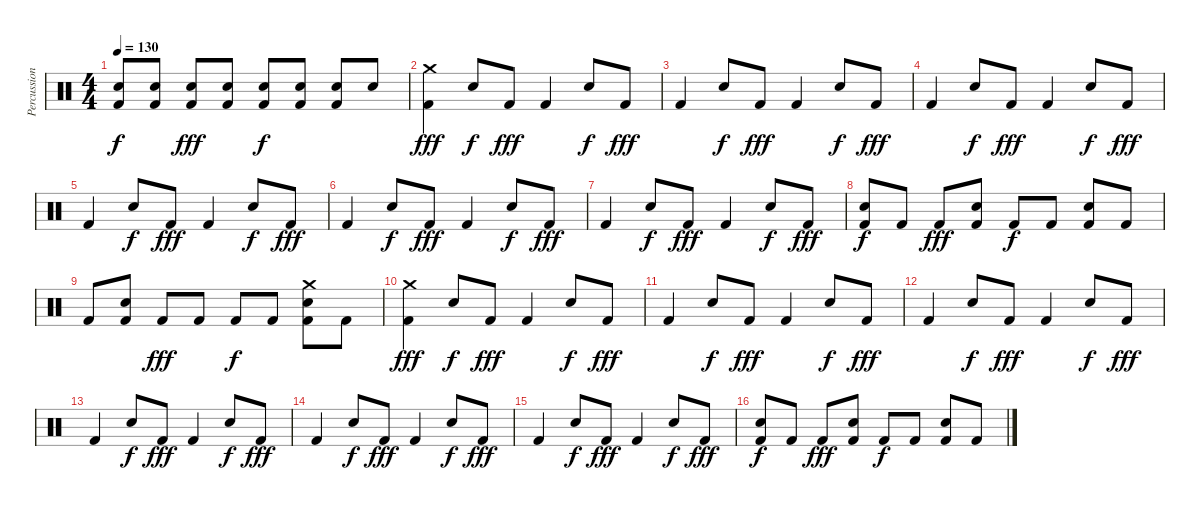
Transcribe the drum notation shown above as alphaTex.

\track ("Percussion" "Percussion") {instrument percussion}
\staff {score}
\articulation defaults
\ts (4 4)
\tempo 130
\clef neutral
\ks c
("Electric Snare (hit)" "Kick (hit) 2").8{dy f} ("Electric Snare (hit)" "Kick (hit) 2").8 ("Electric Snare (hit)" "Kick (hit) 2").8{dy fff} ("Electric Snare (hit)" "Kick (hit) 2").8 ("Electric Snare (hit)" "Kick (hit) 2").8{dy f} ("Electric Snare (hit)" "Kick (hit) 2").8 ("Electric Snare (hit)" "Kick (hit) 2").8 "Electric Snare (hit)".8 |
("Crash medium (hit)" "Kick (hit) 2").4{dy fff} "Electric Snare (hit)".8{dy f} "Kick (hit) 2".8{dy fff} "Kick (hit) 2".4 "Electric Snare (hit)".8{dy f} "Kick (hit) 2".8{dy fff} |
"Kick (hit) 2".4 "Electric Snare (hit)".8{dy f} "Kick (hit) 2".8{dy fff} "Kick (hit) 2".4 "Electric Snare (hit)".8{dy f} "Kick (hit) 2".8{dy fff} |
"Kick (hit) 2".4 "Electric Snare (hit)".8{dy f} "Kick (hit) 2".8{dy fff} "Kick (hit) 2".4 "Electric Snare (hit)".8{dy f} "Kick (hit) 2".8{dy fff} |
"Kick (hit) 2".4 "Electric Snare (hit)".8{dy f} "Kick (hit) 2".8{dy fff} "Kick (hit) 2".4 "Electric Snare (hit)".8{dy f} "Kick (hit) 2".8{dy fff} |
"Kick (hit) 2".4 "Electric Snare (hit)".8{dy f} "Kick (hit) 2".8{dy fff} "Kick (hit) 2".4 "Electric Snare (hit)".8{dy f} "Kick (hit) 2".8{dy fff} |
"Kick (hit) 2".4 "Electric Snare (hit)".8{dy f} "Kick (hit) 2".8{dy fff} "Kick (hit) 2".4 "Electric Snare (hit)".8{dy f} "Kick (hit) 2".8{dy fff} |
("Electric Snare (hit)" "Kick (hit) 2").8{dy f} "Kick (hit) 2".8 "Kick (hit) 2".8{dy fff} ("Electric Snare (hit)" "Kick (hit) 2").8 "Kick (hit) 2".8{dy f} "Kick (hit) 2".8 ("Electric Snare (hit)" "Kick (hit) 2").8 "Kick (hit) 2".8 |
"Kick (hit) 2".8 ("Electric Snare (hit)" "Kick (hit) 2").8 "Kick (hit) 2".8{dy fff} "Kick (hit) 2".8 "Kick (hit) 2".8{dy f} "Kick (hit) 2".8 ("Electric Snare (hit)" "Crash medium (hit)" "Kick (hit) 2").8 "Kick (hit) 2".8 |
("Crash medium (hit)" "Kick (hit) 2").4{dy fff} "Electric Snare (hit)".8{dy f} "Kick (hit) 2".8{dy fff} "Kick (hit) 2".4 "Electric Snare (hit)".8{dy f} "Kick (hit) 2".8{dy fff} |
"Kick (hit) 2".4 "Electric Snare (hit)".8{dy f} "Kick (hit) 2".8{dy fff} "Kick (hit) 2".4 "Electric Snare (hit)".8{dy f} "Kick (hit) 2".8{dy fff} |
"Kick (hit) 2".4 "Electric Snare (hit)".8{dy f} "Kick (hit) 2".8{dy fff} "Kick (hit) 2".4 "Electric Snare (hit)".8{dy f} "Kick (hit) 2".8{dy fff} |
"Kick (hit) 2".4 "Electric Snare (hit)".8{dy f} "Kick (hit) 2".8{dy fff} "Kick (hit) 2".4 "Electric Snare (hit)".8{dy f} "Kick (hit) 2".8{dy fff} |
"Kick (hit) 2".4 "Electric Snare (hit)".8{dy f} "Kick (hit) 2".8{dy fff} "Kick (hit) 2".4 "Electric Snare (hit)".8{dy f} "Kick (hit) 2".8{dy fff} |
"Kick (hit) 2".4 "Electric Snare (hit)".8{dy f} "Kick (hit) 2".8{dy fff} "Kick (hit) 2".4 "Electric Snare (hit)".8{dy f} "Kick (hit) 2".8{dy fff} |
("Electric Snare (hit)" "Kick (hit) 2").8{dy f} "Kick (hit) 2".8 "Kick (hit) 2".8{dy fff} ("Electric Snare (hit)" "Kick (hit) 2").8 "Kick (hit) 2".8{dy f} "Kick (hit) 2".8 ("Electric Snare (hit)" "Kick (hit) 2").8 "Kick (hit) 2".8
